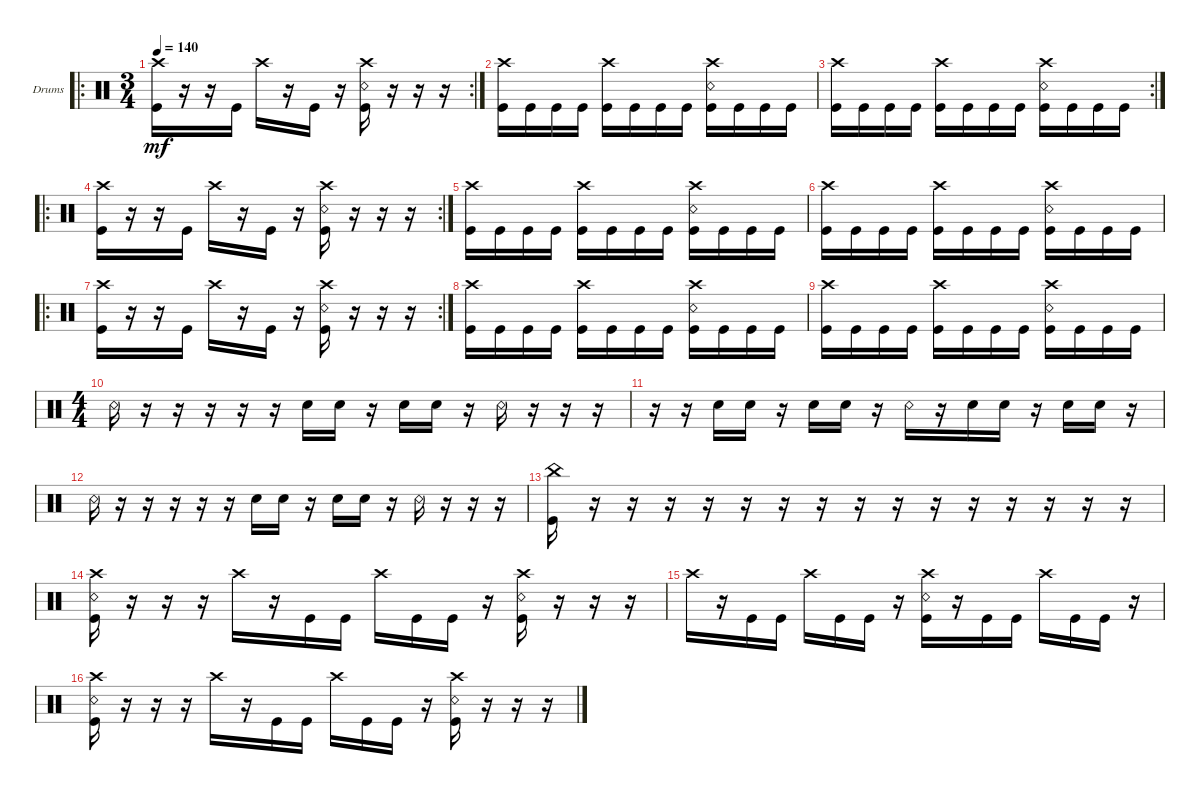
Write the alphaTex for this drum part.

\defaultSystemsLayout 4
\bracketExtendMode groupsimilarinstruments
\firstSystemTrackNameOrientation horizontal
\otherSystemsTrackNameOrientation horizontal
\track ("Drums" "Drums") {instrument percussion}
\staff {score}
\articulation defaults
\ro
\rc 2
\ts (3 4)
\tempo 140
\clef neutral
\ks c
("Crash high (hit)" "Kick (hit)").16{dy mf} r.16 r.16 "Kick (hit)".16 "Crash high (hit)".16 r.16 "Kick (hit)".16 r.16 ("Kick (hit)" "Crash high (hit)" "Snare (rim shot)").16 r.16 r.16 r.16 |
("Crash high (hit)" "Kick (hit)").16 "Kick (hit)".16 "Kick (hit)".16 "Kick (hit)".16 ("Crash high (hit)" "Kick (hit)").16 "Kick (hit)".16 "Kick (hit)".16 "Kick (hit)".16 ("Kick (hit)" "Crash high (hit)" "Snare (rim shot)").16 "Kick (hit)".16 "Kick (hit)".16 "Kick (hit)".16 |
\rc 2
("Crash high (hit)" "Kick (hit)").16 "Kick (hit)".16 "Kick (hit)".16 "Kick (hit)".16 ("Crash high (hit)" "Kick (hit)").16 "Kick (hit)".16 "Kick (hit)".16 "Kick (hit)".16 ("Kick (hit)" "Crash high (hit)" "Snare (rim shot)").16 "Kick (hit)".16 "Kick (hit)".16 "Kick (hit)".16 |
\ro
\rc 2
("Crash high (hit)" "Kick (hit)").16 r.16 r.16 "Kick (hit)".16 "Crash high (hit)".16 r.16 "Kick (hit)".16 r.16 ("Kick (hit)" "Crash high (hit)" "Snare (rim shot)").16 r.16 r.16 r.16 |
("Crash high (hit)" "Kick (hit)").16 "Kick (hit)".16 "Kick (hit)".16 "Kick (hit)".16 ("Crash high (hit)" "Kick (hit)").16 "Kick (hit)".16 "Kick (hit)".16 "Kick (hit)".16 ("Kick (hit)" "Crash high (hit)" "Snare (rim shot)").16 "Kick (hit)".16 "Kick (hit)".16 "Kick (hit)".16 |
("Crash high (hit)" "Kick (hit)").16 "Kick (hit)".16 "Kick (hit)".16 "Kick (hit)".16 ("Crash high (hit)" "Kick (hit)").16 "Kick (hit)".16 "Kick (hit)".16 "Kick (hit)".16 ("Kick (hit)" "Crash high (hit)" "Snare (rim shot)").16 "Kick (hit)".16 "Kick (hit)".16 "Kick (hit)".16 |
\ro
\rc 2
("Crash high (hit)" "Kick (hit)").16 r.16 r.16 "Kick (hit)".16 "Crash high (hit)".16 r.16 "Kick (hit)".16 r.16 ("Kick (hit)" "Crash high (hit)" "Snare (rim shot)").16 r.16 r.16 r.16 |
("Crash high (hit)" "Kick (hit)").16 "Kick (hit)".16 "Kick (hit)".16 "Kick (hit)".16 ("Crash high (hit)" "Kick (hit)").16 "Kick (hit)".16 "Kick (hit)".16 "Kick (hit)".16 ("Kick (hit)" "Crash high (hit)" "Snare (rim shot)").16 "Kick (hit)".16 "Kick (hit)".16 "Kick (hit)".16 |
("Crash high (hit)" "Kick (hit)").16 "Kick (hit)".16 "Kick (hit)".16 "Kick (hit)".16 ("Crash high (hit)" "Kick (hit)").16 "Kick (hit)".16 "Kick (hit)".16 "Kick (hit)".16 ("Kick (hit)" "Crash high (hit)" "Snare (rim shot)").16 "Kick (hit)".16 "Kick (hit)".16 "Kick (hit)".16 |
\ts (4 4)
"Snare (rim shot)".16 r.16 r.16 r.16 r.16 r.16 "Snare (hit) 2".16 "Snare (hit) 2".16 r.16 "Snare (hit) 2".16 "Snare (hit) 2".16 r.16 "Snare (rim shot)".16 r.16 r.16 r.16 |
r.16 r.16 "Snare (hit) 2".16 "Snare (hit) 2".16 r.16 "Snare (hit) 2".16 "Snare (hit) 2".16 r.16 "Snare (rim shot)".16 r.16 "Snare (hit) 2".16 "Snare (hit) 2".16 r.16 "Snare (hit) 2".16 "Snare (hit) 2".16 r.16 |
"Snare (rim shot)".16 r.16 r.16 r.16 r.16 r.16 "Snare (hit) 2".16 "Snare (hit) 2".16 r.16 "Snare (hit) 2".16 "Snare (hit) 2".16 r.16 "Snare (rim shot)".16 r.16 r.16 r.16 |
("Kick (hit)" "China (hit)").16 r.16 r.16 r.16 r.16 r.16 r.16 r.16 r.16 r.16 r.16 r.16 r.16 r.16 r.16 r.16 |
("Kick (hit)" "Crash high (hit)" "Snare (rim shot)").16 r.16 r.16 r.16 "Crash high (hit)".16 r.16 "Kick (hit)".16 "Kick (hit)".16 "Crash high (hit)".16 "Kick (hit)".16 "Kick (hit)".16 r.16 ("Snare (rim shot)" "Crash high (hit)" "Kick (hit)").16 r.16 r.16 r.16 |
"Crash high (hit)".16 r.16 "Kick (hit)".16 "Kick (hit)".16 "Crash high (hit)".16 "Kick (hit)".16 "Kick (hit)".16 r.16 ("Snare (rim shot)" "Crash high (hit)" "Kick (hit)").16 r.16 "Kick (hit)".16 "Kick (hit)".16 "Crash high (hit)".16 "Kick (hit)".16 "Kick (hit)".16 r.16 |
("Kick (hit)" "Crash high (hit)" "Snare (rim shot)").16 r.16 r.16 r.16 "Crash high (hit)".16 r.16 "Kick (hit)".16 "Kick (hit)".16 "Crash high (hit)".16 "Kick (hit)".16 "Kick (hit)".16 r.16 ("Snare (rim shot)" "Crash high (hit)" "Kick (hit)").16 r.16 r.16 r.16
